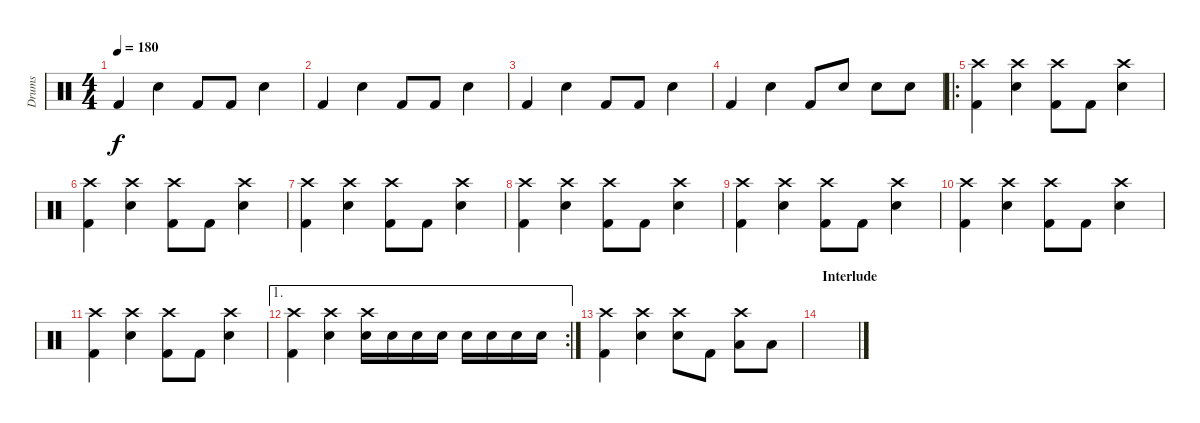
\track ("Drums" "Drums") {instrument percussion}
\staff {score}
\articulation defaults
\ts (4 4)
\tempo 180
\clef neutral
\ks c "Kick (hit) 2".4{dy f} "Snare (hit) 2".4 "Kick (hit) 2".8 "Kick (hit) 2".8 "Snare (hit) 2".4
|
"Kick (hit) 2".4 "Snare (hit) 2".4 "Kick (hit) 2".8 "Kick (hit) 2".8 "Snare (hit) 2".4 |
"Kick (hit) 2".4 "Snare (hit) 2".4 "Kick (hit) 2".8 "Kick (hit) 2".8 "Snare (hit) 2".4 |
"Kick (hit) 2".4 "Snare (hit) 2".4 "Kick (hit) 2".8 "Snare (hit) 2".8 "Snare (hit) 2".8 "Snare (hit) 2".8 |
\ro
("Crash high (hit)" "Kick (hit) 2").4 ("Crash high (hit)" "Snare (hit) 2").4 ("Crash high (hit)" "Kick (hit) 2").8 "Kick (hit) 2".8 ("Crash high (hit)" "Snare (hit) 2").4 |
("Crash high (hit)" "Kick (hit) 2").4 ("Crash high (hit)" "Snare (hit) 2").4 ("Crash high (hit)" "Kick (hit) 2").8 "Kick (hit) 2".8 ("Crash high (hit)" "Snare (hit) 2").4 |
("Crash high (hit)" "Kick (hit) 2").4 ("Crash high (hit)" "Snare (hit) 2").4 ("Crash high (hit)" "Kick (hit) 2").8 "Kick (hit) 2".8 ("Crash high (hit)" "Snare (hit) 2").4 |
("Crash high (hit)" "Kick (hit) 2").4 ("Crash high (hit)" "Snare (hit) 2").4 ("Crash high (hit)" "Kick (hit) 2").8 "Kick (hit) 2".8 ("Crash high (hit)" "Snare (hit) 2").4 |
("Crash high (hit)" "Kick (hit) 2").4 ("Crash high (hit)" "Snare (hit) 2").4 ("Crash high (hit)" "Kick (hit) 2").8 "Kick (hit) 2".8 ("Crash high (hit)" "Snare (hit) 2").4 |
("Crash high (hit)" "Kick (hit) 2").4 ("Crash high (hit)" "Snare (hit) 2").4 ("Crash high (hit)" "Kick (hit) 2").8 "Kick (hit) 2".8 ("Crash high (hit)" "Snare (hit) 2").4 |
("Crash high (hit)" "Kick (hit) 2").4 ("Crash high (hit)" "Snare (hit) 2").4 ("Crash high (hit)" "Kick (hit) 2").8 "Kick (hit) 2".8 ("Crash high (hit)" "Snare (hit) 2").4 |
\ae 1
\rc 2
("Crash high (hit)" "Kick (hit) 2").4 ("Crash high (hit)" "Snare (hit) 2").4 ("Crash high (hit)" "Snare (hit) 2").16 "Snare (hit) 2".16 "Snare (hit) 2".16 "Snare (hit) 2".16 "Snare (hit) 2".16 "Snare (hit) 2".16 "Snare (hit) 2".16 "Snare (hit) 2".16 |
("Crash high (hit)" "Kick (hit) 2").4 ("Crash high (hit)" "Snare (hit) 2").4 ("Crash high (hit)" "Snare (hit) 2").8 "Kick (hit) 2".8 ("Crash high (hit)" "Low Tom (hit)").8 "Low Floor Tom (hit)".8 |
\section ("" "Interlude")
